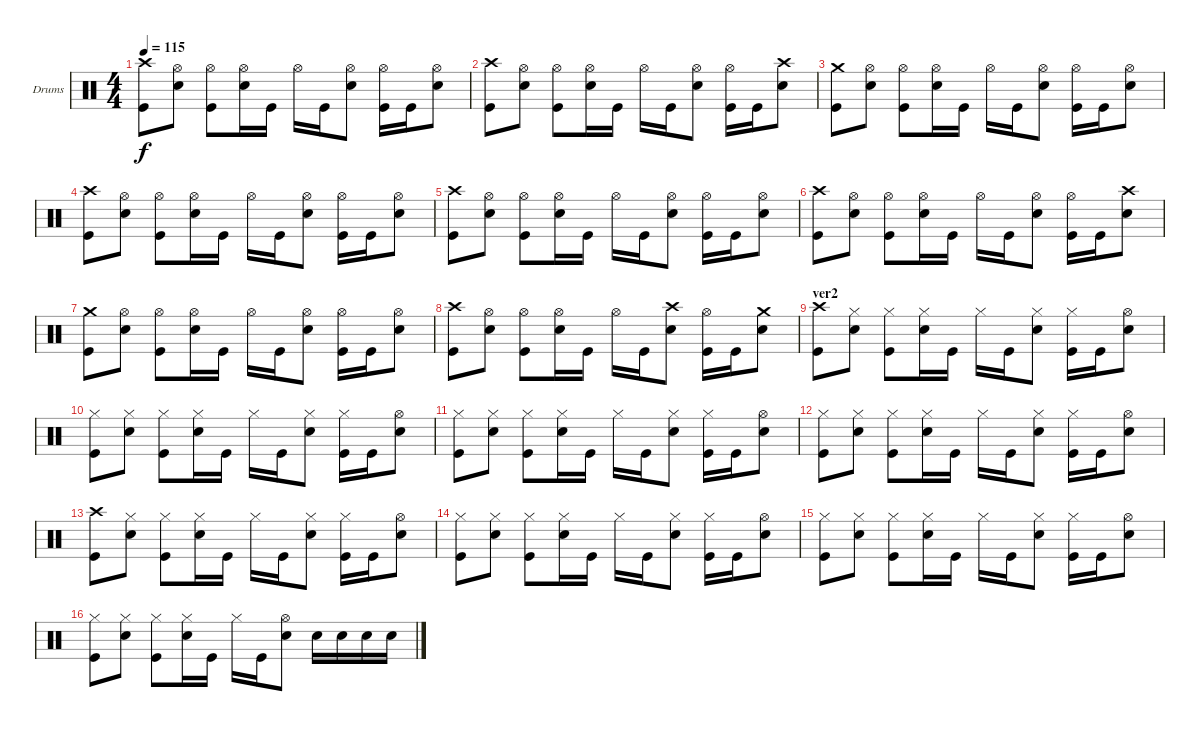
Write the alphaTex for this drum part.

\bracketExtendMode groupsimilarinstruments
\firstSystemTrackNameOrientation horizontal
\otherSystemsTrackNameOrientation horizontal
\track ("Drumkit" "Drums") {instrument percussion}
\staff {score}
\articulation defaults
\ts (4 4)
\tempo 115
\clef neutral
\ks c
("Crash high (hit)" "Kick (hit)").8{dy f} ("Hi-Hat (open)" "Snare (hit) 2").8 ("Hi-Hat (open)" "Kick (hit)").8 ("Hi-Hat (open)" "Snare (hit) 2").16 "Kick (hit)".16 "Hi-Hat (open)".16 "Kick (hit)".16 ("Hi-Hat (open)" "Snare (hit) 2").8 ("Hi-Hat (open)" "Kick (hit)").16 "Kick (hit)".16 ("Hi-Hat (open)" "Snare (hit) 2").8 |
("Crash high (hit)" "Kick (hit)").8 ("Hi-Hat (open)" "Snare (hit) 2").8 ("Hi-Hat (open)" "Kick (hit)").8 ("Hi-Hat (open)" "Snare (hit) 2").16 "Kick (hit)".16 "Hi-Hat (open)".16 "Kick (hit)".16 ("Hi-Hat (open)" "Snare (hit) 2").8 ("Hi-Hat (open)" "Kick (hit)").16 "Kick (hit)".16 ("Crash high (hit)" "Snare (hit) 2").8 |
("Crash medium (hit)" "Kick (hit)").8 ("Hi-Hat (open)" "Snare (hit) 2").8 ("Hi-Hat (open)" "Kick (hit)").8 ("Hi-Hat (open)" "Snare (hit) 2").16 "Kick (hit)".16 "Hi-Hat (open)".16 "Kick (hit)".16 ("Hi-Hat (open)" "Snare (hit) 2").8 ("Hi-Hat (open)" "Kick (hit)").16 "Kick (hit)".16 ("Hi-Hat (open)" "Snare (hit) 2").8 |
("Crash high (hit)" "Kick (hit)").8 ("Hi-Hat (open)" "Snare (hit) 2").8 ("Hi-Hat (open)" "Kick (hit)").8 ("Hi-Hat (open)" "Snare (hit) 2").16 "Kick (hit)".16 "Hi-Hat (open)".16 "Kick (hit)".16 ("Hi-Hat (open)" "Snare (hit) 2").8 ("Hi-Hat (open)" "Kick (hit)").16 "Kick (hit)".16 ("Hi-Hat (open)" "Snare (hit) 2").8 |
("Crash high (hit)" "Kick (hit)").8 ("Hi-Hat (open)" "Snare (hit) 2").8 ("Hi-Hat (open)" "Kick (hit)").8 ("Hi-Hat (open)" "Snare (hit) 2").16 "Kick (hit)".16 "Hi-Hat (open)".16 "Kick (hit)".16 ("Hi-Hat (open)" "Snare (hit) 2").8 ("Hi-Hat (open)" "Kick (hit)").16 "Kick (hit)".16 ("Hi-Hat (open)" "Snare (hit) 2").8 |
("Crash high (hit)" "Kick (hit)").8 ("Hi-Hat (open)" "Snare (hit) 2").8 ("Hi-Hat (open)" "Kick (hit)").8 ("Hi-Hat (open)" "Snare (hit) 2").16 "Kick (hit)".16 "Hi-Hat (open)".16 "Kick (hit)".16 ("Hi-Hat (open)" "Snare (hit) 2").8 ("Hi-Hat (open)" "Kick (hit)").16 "Kick (hit)".16 ("Crash high (hit)" "Snare (hit) 2").8 |
("Crash medium (hit)" "Kick (hit)").8 ("Hi-Hat (open)" "Snare (hit) 2").8 ("Hi-Hat (open)" "Kick (hit)").8 ("Hi-Hat (open)" "Snare (hit) 2").16 "Kick (hit)".16 "Hi-Hat (open)".16 "Kick (hit)".16 ("Hi-Hat (open)" "Snare (hit) 2").8 ("Hi-Hat (open)" "Kick (hit)").16 "Kick (hit)".16 ("Hi-Hat (open)" "Snare (hit) 2").8 |
("Crash high (hit)" "Kick (hit)").8 ("Hi-Hat (open)" "Snare (hit) 2").8 ("Hi-Hat (open)" "Kick (hit)").8 ("Hi-Hat (open)" "Snare (hit) 2").16 "Kick (hit)".16 "Hi-Hat (open)".16 "Kick (hit)".16 ("Crash high (hit)" "Snare (hit) 2").8 ("Hi-Hat (open)" "Kick (hit)").16 "Kick (hit)".16 ("Crash medium (hit)" "Snare (hit) 2").8 |
\section ("" "ver2")
("Crash high (hit)" "Kick (hit)").8 ("Hi-Hat (closed)" "Snare (hit) 2").8 ("Hi-Hat (closed)" "Kick (hit)").8 ("Hi-Hat (closed)" "Snare (hit) 2").16 "Kick (hit)".16 "Hi-Hat (closed)".16 "Kick (hit)".16 ("Hi-Hat (closed)" "Snare (hit) 2").8 ("Hi-Hat (closed)" "Kick (hit)").16 "Kick (hit)".16 ("Hi-Hat (open)" "Snare (hit) 2").8 |
("Hi-Hat (closed)" "Kick (hit)").8 ("Hi-Hat (closed)" "Snare (hit) 2").8 ("Hi-Hat (closed)" "Kick (hit)").8 ("Hi-Hat (closed)" "Snare (hit) 2").16 "Kick (hit)".16 "Hi-Hat (closed)".16 "Kick (hit)".16 ("Hi-Hat (closed)" "Snare (hit) 2").8 ("Hi-Hat (closed)" "Kick (hit)").16 "Kick (hit)".16 ("Hi-Hat (open)" "Snare (hit) 2").8 |
("Hi-Hat (closed)" "Kick (hit)").8 ("Hi-Hat (closed)" "Snare (hit) 2").8 ("Hi-Hat (closed)" "Kick (hit)").8 ("Hi-Hat (closed)" "Snare (hit) 2").16 "Kick (hit)".16 "Hi-Hat (closed)".16 "Kick (hit)".16 ("Hi-Hat (closed)" "Snare (hit) 2").8 ("Hi-Hat (closed)" "Kick (hit)").16 "Kick (hit)".16 ("Hi-Hat (open)" "Snare (hit) 2").8 |
("Hi-Hat (closed)" "Kick (hit)").8 ("Hi-Hat (closed)" "Snare (hit) 2").8 ("Hi-Hat (closed)" "Kick (hit)").8 ("Hi-Hat (closed)" "Snare (hit) 2").16 "Kick (hit)".16 "Hi-Hat (closed)".16 "Kick (hit)".16 ("Hi-Hat (closed)" "Snare (hit) 2").8 ("Hi-Hat (closed)" "Kick (hit)").16 "Kick (hit)".16 ("Hi-Hat (open)" "Snare (hit) 2").8 |
("Crash high (hit)" "Kick (hit)").8 ("Hi-Hat (closed)" "Snare (hit) 2").8 ("Hi-Hat (closed)" "Kick (hit)").8 ("Hi-Hat (closed)" "Snare (hit) 2").16 "Kick (hit)".16 "Hi-Hat (closed)".16 "Kick (hit)".16 ("Hi-Hat (closed)" "Snare (hit) 2").8 ("Hi-Hat (closed)" "Kick (hit)").16 "Kick (hit)".16 ("Hi-Hat (open)" "Snare (hit) 2").8 |
("Hi-Hat (closed)" "Kick (hit)").8 ("Hi-Hat (closed)" "Snare (hit) 2").8 ("Hi-Hat (closed)" "Kick (hit)").8 ("Hi-Hat (closed)" "Snare (hit) 2").16 "Kick (hit)".16 "Hi-Hat (closed)".16 "Kick (hit)".16 ("Hi-Hat (closed)" "Snare (hit) 2").8 ("Hi-Hat (closed)" "Kick (hit)").16 "Kick (hit)".16 ("Hi-Hat (open)" "Snare (hit) 2").8 |
("Hi-Hat (closed)" "Kick (hit)").8 ("Hi-Hat (closed)" "Snare (hit) 2").8 ("Hi-Hat (closed)" "Kick (hit)").8 ("Hi-Hat (closed)" "Snare (hit) 2").16 "Kick (hit)".16 "Hi-Hat (closed)".16 "Kick (hit)".16 ("Hi-Hat (closed)" "Snare (hit) 2").8 ("Hi-Hat (closed)" "Kick (hit)").16 "Kick (hit)".16 ("Hi-Hat (open)" "Snare (hit) 2").8 |
("Hi-Hat (closed)" "Kick (hit)").8 ("Hi-Hat (closed)" "Snare (hit) 2").8 ("Hi-Hat (closed)" "Kick (hit)").8 ("Hi-Hat (closed)" "Snare (hit) 2").16 "Kick (hit)".16 "Hi-Hat (closed)".16 "Kick (hit)".16 ("Hi-Hat (open)" "Snare (hit) 2").8 "Snare (hit) 2".16 "Snare (hit) 2".16 "Snare (hit) 2".16 "Snare (hit) 2".16
